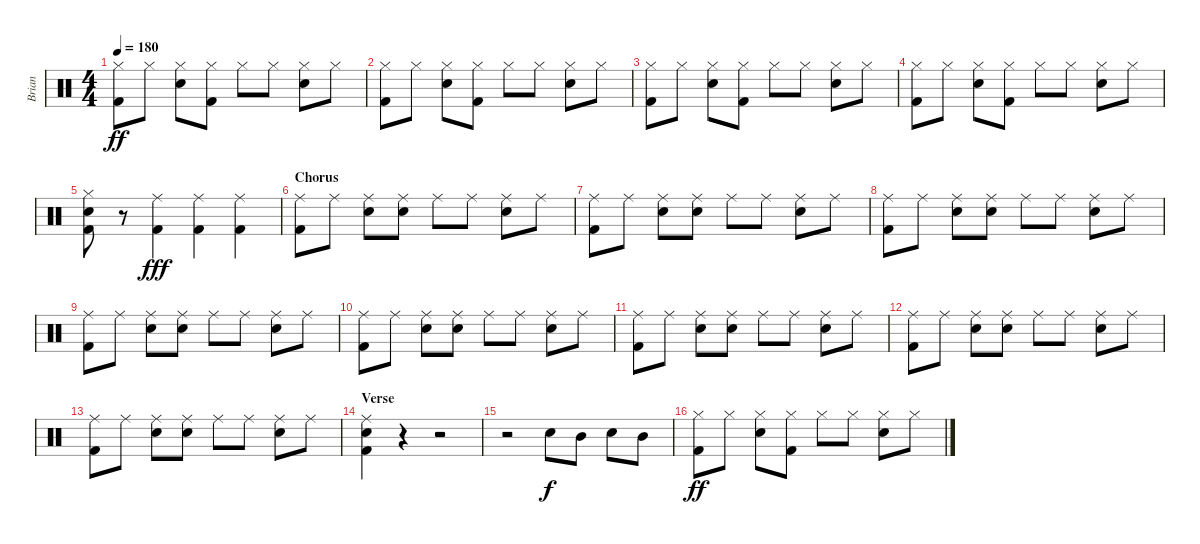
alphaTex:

\track ("Brian" "Brian") {instrument percussion}
\staff {score}
\articulation defaults
\ts (4 4)
\tempo 180
\clef neutral
\ks c
("Hi-Hat (closed)" "Kick (hit) 2").8{dy ff} "Hi-Hat (closed)".8 ("Hi-Hat (closed)" "Snare (hit) 2").8 ("Hi-Hat (closed)" "Kick (hit) 2").8 "Hi-Hat (closed)".8 "Hi-Hat (closed)".8 ("Hi-Hat (closed)" "Snare (hit) 2").8 "Hi-Hat (closed)".8 |
("Hi-Hat (closed)" "Kick (hit) 2").8 "Hi-Hat (closed)".8 ("Hi-Hat (closed)" "Snare (hit) 2").8 ("Hi-Hat (closed)" "Kick (hit) 2").8 "Hi-Hat (closed)".8 "Hi-Hat (closed)".8 ("Hi-Hat (closed)" "Snare (hit) 2").8 "Hi-Hat (closed)".8 |
("Hi-Hat (closed)" "Kick (hit) 2").8 "Hi-Hat (closed)".8 ("Hi-Hat (closed)" "Snare (hit) 2").8 ("Hi-Hat (closed)" "Kick (hit) 2").8 "Hi-Hat (closed)".8 "Hi-Hat (closed)".8 ("Hi-Hat (closed)" "Snare (hit) 2").8 "Hi-Hat (closed)".8 |
("Hi-Hat (closed)" "Kick (hit) 2").8 "Hi-Hat (closed)".8 ("Hi-Hat (closed)" "Snare (hit) 2").8 ("Hi-Hat (closed)" "Kick (hit) 2").8 "Hi-Hat (closed)".8 "Hi-Hat (closed)".8 ("Hi-Hat (closed)" "Snare (hit) 2").8 "Hi-Hat (closed)".8 |
("Hi-Hat (closed)" "Snare (hit) 2" "Kick (hit) 2").8 r.8 ("Ride (middle)" "Kick (hit) 2").4{dy fff} ("Ride (middle)" "Kick (hit) 2").4 ("Ride (middle)" "Kick (hit) 2").4 |
\section ("" "Chorus")
("Ride (middle)" "Kick (hit) 2").8 "Ride (middle)".8 ("Ride (middle)" "Snare (hit) 2").8 ("Ride (middle)" "Snare (hit) 2").8 "Ride (middle)".8 "Ride (middle)".8 ("Ride (middle)" "Snare (hit) 2").8 "Ride (middle)".8 |
("Ride (middle)" "Kick (hit) 2").8 "Ride (middle)".8 ("Ride (middle)" "Snare (hit) 2").8 ("Ride (middle)" "Snare (hit) 2").8 "Ride (middle)".8 "Ride (middle)".8 ("Ride (middle)" "Snare (hit) 2").8 "Ride (middle)".8 |
("Ride (middle)" "Kick (hit) 2").8 "Ride (middle)".8 ("Ride (middle)" "Snare (hit) 2").8 ("Ride (middle)" "Snare (hit) 2").8 "Ride (middle)".8 "Ride (middle)".8 ("Ride (middle)" "Snare (hit) 2").8 "Ride (middle)".8 |
("Ride (middle)" "Kick (hit) 2").8 "Ride (middle)".8 ("Ride (middle)" "Snare (hit) 2").8 ("Ride (middle)" "Snare (hit) 2").8 "Ride (middle)".8 "Ride (middle)".8 ("Ride (middle)" "Snare (hit) 2").8 "Ride (middle)".8 |
("Ride (middle)" "Kick (hit) 2").8 "Ride (middle)".8 ("Ride (middle)" "Snare (hit) 2").8 ("Ride (middle)" "Snare (hit) 2").8 "Ride (middle)".8 "Ride (middle)".8 ("Ride (middle)" "Snare (hit) 2").8 "Ride (middle)".8 |
("Ride (middle)" "Kick (hit) 2").8 "Ride (middle)".8 ("Ride (middle)" "Snare (hit) 2").8 ("Ride (middle)" "Snare (hit) 2").8 "Ride (middle)".8 "Ride (middle)".8 ("Ride (middle)" "Snare (hit) 2").8 "Ride (middle)".8 |
("Ride (middle)" "Kick (hit) 2").8 "Ride (middle)".8 ("Ride (middle)" "Snare (hit) 2").8 ("Ride (middle)" "Snare (hit) 2").8 "Ride (middle)".8 "Ride (middle)".8 ("Ride (middle)" "Snare (hit) 2").8 "Ride (middle)".8 |
("Ride (middle)" "Kick (hit) 2").8 "Ride (middle)".8 ("Ride (middle)" "Snare (hit) 2").8 ("Ride (middle)" "Snare (hit) 2").8 "Ride (middle)".8 "Ride (middle)".8 ("Ride (middle)" "Snare (hit) 2").8 "Ride (middle)".8 |
\section ("" "Verse")
("Ride (middle)" "Snare (hit) 2" "Kick (hit) 2").4 r.4 r.2 |
r.2 "Snare (hit) 2".8{dy f} "Mid Tom (hit)".8 "Snare (hit) 2".8 "Mid Tom (hit)".8 |
("Hi-Hat (closed)" "Kick (hit) 2").8{dy ff} "Hi-Hat (closed)".8 ("Hi-Hat (closed)" "Snare (hit) 2").8 ("Hi-Hat (closed)" "Kick (hit) 2").8 "Hi-Hat (closed)".8 "Hi-Hat (closed)".8 ("Hi-Hat (closed)" "Snare (hit) 2").8 "Hi-Hat (closed)".8
